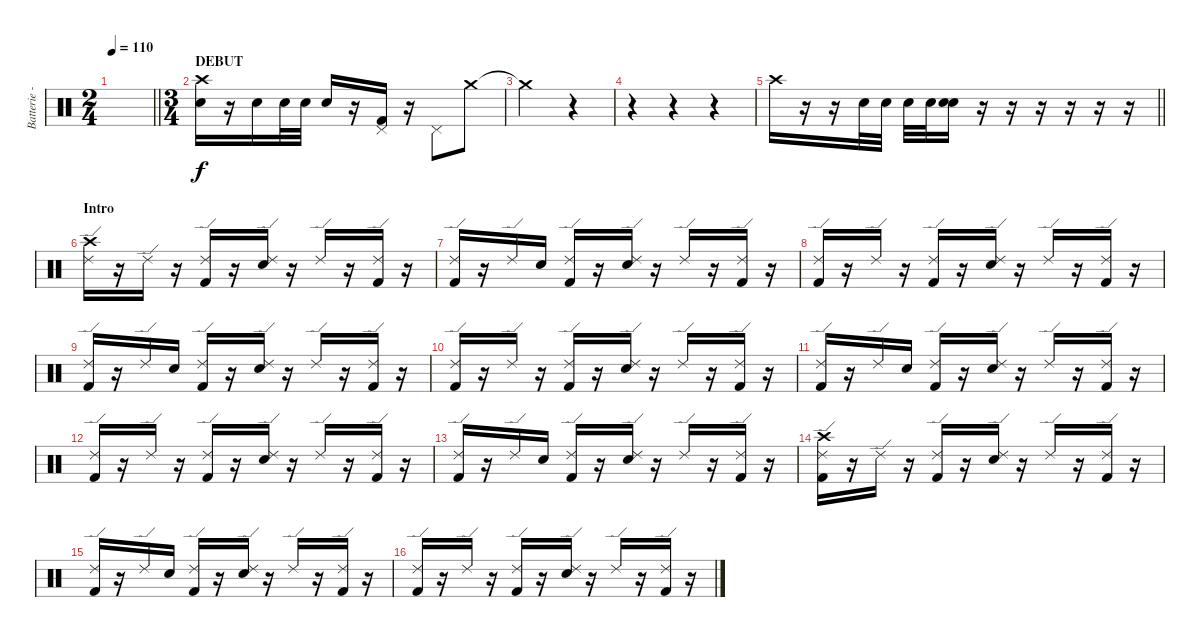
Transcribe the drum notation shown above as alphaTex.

\track ("Batterie - Toshiya" "Batterie -") {instrument percussion}
\staff {score}
\articulation defaults
\ts (2 4)
\tempo 110
\clef neutral
\barLineRight lightlight
\ks c
|
\ts (3 4)
\section ("" "DEBUT")
("Crash high (hit)" "Electric Snare (hit)").16 r.16 "Electric Snare (hit)".16 "Electric Snare (hit)".32 "Electric Snare (hit)".32 "Electric Snare (hit)".16 r.16 ("Pedal Hi-Hat (hit)" "Kick (hit) 2").16 r.16 "Pedal Hi-Hat (hit)".8 "Crash medium (hit)".8 |
"Crash medium (hit)"{t}.2 r.4 |
r.4 r.4 r.4 |
\barLineRight lightlight "Crash high (hit)".16
r.16 r.16 "Electric Snare (hit)".32 "Electric Snare (hit)".32 "Electric Snare (hit)".32 "Electric Snare (hit)".32 ("Electric Snare (hit)" "Electric Snare (hit)").16 r.16 r.16 r.16 r.16 r.16 r.16 |
\section ("" "Intro")
("Ride (edge) 2" "Crash high (hit)").16 r.16 "Ride (edge) 2".16 r.16 ("Ride (edge) 2" "Kick (hit) 2").16 r.16 ("Ride (edge) 2" "Electric Snare (hit)").16 r.16 "Ride (edge) 2".16 r.16 ("Ride (edge) 2" "Kick (hit) 2").16 r.16 |
("Ride (edge) 2" "Kick (hit) 2").16 r.16 "Ride (edge) 2".16 "Electric Snare (hit)".16 ("Ride (edge) 2" "Kick (hit) 2").16 r.16 ("Ride (edge) 2" "Electric Snare (hit)").16 r.16 "Ride (edge) 2".16 r.16 ("Ride (edge) 2" "Kick (hit) 2").16 r.16 |
("Ride (edge) 2" "Kick (hit) 2").16 r.16 "Ride (edge) 2".16 r.16 ("Ride (edge) 2" "Kick (hit) 2").16 r.16 ("Ride (edge) 2" "Electric Snare (hit)").16 r.16 "Ride (edge) 2".16 r.16 ("Ride (edge) 2" "Kick (hit) 2").16 r.16 |
("Ride (edge) 2" "Kick (hit) 2").16 r.16 "Ride (edge) 2".16 "Electric Snare (hit)".16 ("Ride (edge) 2" "Kick (hit) 2").16 r.16 ("Ride (edge) 2" "Electric Snare (hit)").16 r.16 "Ride (edge) 2".16 r.16 ("Ride (edge) 2" "Kick (hit) 2").16 r.16 |
("Ride (edge) 2" "Kick (hit) 2").16 r.16 "Ride (edge) 2".16 r.16 ("Ride (edge) 2" "Kick (hit) 2").16 r.16 ("Ride (edge) 2" "Electric Snare (hit)").16 r.16 "Ride (edge) 2".16 r.16 ("Ride (edge) 2" "Kick (hit) 2").16 r.16 |
("Ride (edge) 2" "Kick (hit) 2").16 r.16 "Ride (edge) 2".16 "Electric Snare (hit)".16 ("Ride (edge) 2" "Kick (hit) 2").16 r.16 ("Ride (edge) 2" "Electric Snare (hit)").16 r.16 "Ride (edge) 2".16 r.16 ("Ride (edge) 2" "Kick (hit) 2").16 r.16 |
("Ride (edge) 2" "Kick (hit) 2").16 r.16 "Ride (edge) 2".16 r.16 ("Ride (edge) 2" "Kick (hit) 2").16 r.16 ("Ride (edge) 2" "Electric Snare (hit)").16 r.16 "Ride (edge) 2".16 r.16 ("Ride (edge) 2" "Kick (hit) 2").16 r.16 |
("Ride (edge) 2" "Kick (hit) 2").16 r.16 "Ride (edge) 2".16 "Electric Snare (hit)".16 ("Ride (edge) 2" "Kick (hit) 2").16 r.16 ("Ride (edge) 2" "Electric Snare (hit)").16 r.16 "Ride (edge) 2".16 r.16 ("Ride (edge) 2" "Kick (hit) 2").16 r.16 |
("Ride (edge) 2" "Crash high (hit)" "Kick (hit) 2").16 r.16 "Ride (edge) 2".16 r.16 ("Ride (edge) 2" "Kick (hit) 2").16 r.16 ("Ride (edge) 2" "Electric Snare (hit)").16 r.16 "Ride (edge) 2".16 r.16 ("Ride (edge) 2" "Kick (hit) 2").16 r.16 |
("Ride (edge) 2" "Kick (hit) 2").16 r.16 "Ride (edge) 2".16 "Electric Snare (hit)".16 ("Ride (edge) 2" "Kick (hit) 2").16 r.16 ("Ride (edge) 2" "Electric Snare (hit)").16 r.16 "Ride (edge) 2".16 r.16 ("Ride (edge) 2" "Kick (hit) 2").16 r.16 |
("Ride (edge) 2" "Kick (hit) 2").16 r.16 "Ride (edge) 2".16 r.16 ("Ride (edge) 2" "Kick (hit) 2").16 r.16 ("Ride (edge) 2" "Electric Snare (hit)").16 r.16 "Ride (edge) 2".16 r.16 ("Ride (edge) 2" "Kick (hit) 2").16 r.16
